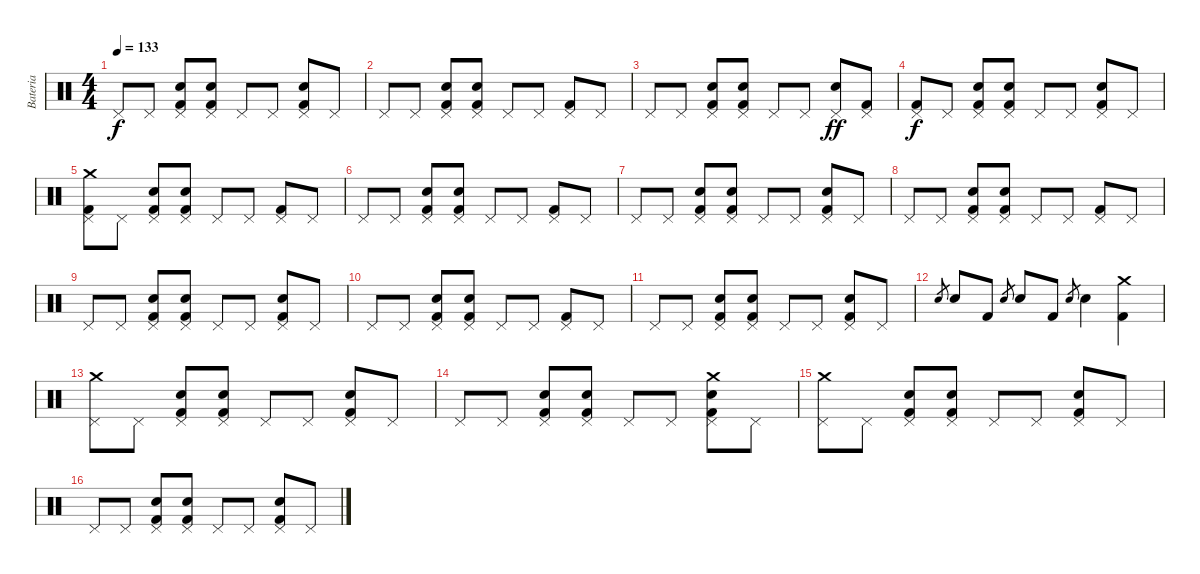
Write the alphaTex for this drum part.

\track ("Bateria" "Bateria") {instrument percussion}
\staff {score}
\articulation defaults
\ts (4 4)
\tempo 133
\clef neutral
\ks c "Pedal Hi-Hat (hit)".8{dy f} "Pedal Hi-Hat (hit)".8
("Kick (hit) 2" "Pedal Hi-Hat (hit)" "Electric Snare (hit)").8 ("Kick (hit) 2" "Pedal Hi-Hat (hit)" "Electric Snare (hit)").8 "Pedal Hi-Hat (hit)".8 "Pedal Hi-Hat (hit)".8 ("Kick (hit) 2" "Pedal Hi-Hat (hit)" "Electric Snare (hit)").8 "Pedal Hi-Hat (hit)".8 |
"Pedal Hi-Hat (hit)".8 "Pedal Hi-Hat (hit)".8 ("Kick (hit) 2" "Pedal Hi-Hat (hit)" "Electric Snare (hit)").8 ("Kick (hit) 2" "Pedal Hi-Hat (hit)" "Electric Snare (hit)").8 "Pedal Hi-Hat (hit)".8 "Pedal Hi-Hat (hit)".8 ("Kick (hit) 2" "Pedal Hi-Hat (hit)").8 "Pedal Hi-Hat (hit)".8 |
"Pedal Hi-Hat (hit)".8 "Pedal Hi-Hat (hit)".8 ("Kick (hit) 2" "Pedal Hi-Hat (hit)" "Electric Snare (hit)").8 ("Kick (hit) 2" "Pedal Hi-Hat (hit)" "Electric Snare (hit)").8 "Pedal Hi-Hat (hit)".8 "Pedal Hi-Hat (hit)".8 ("Pedal Hi-Hat (hit)" "Electric Snare (hit)").8{dy ff} ("Kick (hit) 2" "Pedal Hi-Hat (hit)").8 |
("Kick (hit) 2" "Pedal Hi-Hat (hit)").8{dy f} "Pedal Hi-Hat (hit)".8 ("Kick (hit) 2" "Pedal Hi-Hat (hit)" "Electric Snare (hit)").8 ("Kick (hit) 2" "Pedal Hi-Hat (hit)" "Electric Snare (hit)").8 "Pedal Hi-Hat (hit)".8 "Pedal Hi-Hat (hit)".8 ("Kick (hit) 2" "Pedal Hi-Hat (hit)" "Electric Snare (hit)").8 "Pedal Hi-Hat (hit)".8 |
("Crash medium (hit)" "Kick (hit) 2" "Pedal Hi-Hat (hit)").8 "Pedal Hi-Hat (hit)".8 ("Kick (hit) 2" "Pedal Hi-Hat (hit)" "Electric Snare (hit)").8 ("Kick (hit) 2" "Pedal Hi-Hat (hit)" "Electric Snare (hit)").8 "Pedal Hi-Hat (hit)".8 "Pedal Hi-Hat (hit)".8 ("Kick (hit) 2" "Pedal Hi-Hat (hit)").8 "Pedal Hi-Hat (hit)".8 |
"Pedal Hi-Hat (hit)".8 "Pedal Hi-Hat (hit)".8 ("Kick (hit) 2" "Pedal Hi-Hat (hit)" "Electric Snare (hit)").8 ("Kick (hit) 2" "Pedal Hi-Hat (hit)" "Electric Snare (hit)").8 "Pedal Hi-Hat (hit)".8 "Pedal Hi-Hat (hit)".8 ("Kick (hit) 2" "Pedal Hi-Hat (hit)").8 "Pedal Hi-Hat (hit)".8 |
"Pedal Hi-Hat (hit)".8 "Pedal Hi-Hat (hit)".8 ("Kick (hit) 2" "Pedal Hi-Hat (hit)" "Electric Snare (hit)").8 ("Kick (hit) 2" "Pedal Hi-Hat (hit)" "Electric Snare (hit)").8 "Pedal Hi-Hat (hit)".8 "Pedal Hi-Hat (hit)".8 ("Kick (hit) 2" "Pedal Hi-Hat (hit)" "Electric Snare (hit)").8 "Pedal Hi-Hat (hit)".8 |
"Pedal Hi-Hat (hit)".8 "Pedal Hi-Hat (hit)".8 ("Kick (hit) 2" "Pedal Hi-Hat (hit)" "Electric Snare (hit)").8 ("Kick (hit) 2" "Pedal Hi-Hat (hit)" "Electric Snare (hit)").8 "Pedal Hi-Hat (hit)".8 "Pedal Hi-Hat (hit)".8 ("Kick (hit) 2" "Pedal Hi-Hat (hit)").8 "Pedal Hi-Hat (hit)".8 |
"Pedal Hi-Hat (hit)".8 "Pedal Hi-Hat (hit)".8 ("Kick (hit) 2" "Pedal Hi-Hat (hit)" "Electric Snare (hit)").8 ("Kick (hit) 2" "Pedal Hi-Hat (hit)" "Electric Snare (hit)").8 "Pedal Hi-Hat (hit)".8 "Pedal Hi-Hat (hit)".8 ("Kick (hit) 2" "Pedal Hi-Hat (hit)" "Electric Snare (hit)").8 "Pedal Hi-Hat (hit)".8 |
"Pedal Hi-Hat (hit)".8 "Pedal Hi-Hat (hit)".8 ("Kick (hit) 2" "Pedal Hi-Hat (hit)" "Electric Snare (hit)").8 ("Kick (hit) 2" "Pedal Hi-Hat (hit)" "Electric Snare (hit)").8 "Pedal Hi-Hat (hit)".8 "Pedal Hi-Hat (hit)".8 ("Kick (hit) 2" "Pedal Hi-Hat (hit)").8 "Pedal Hi-Hat (hit)".8 |
"Pedal Hi-Hat (hit)".8 "Pedal Hi-Hat (hit)".8 ("Kick (hit) 2" "Pedal Hi-Hat (hit)" "Electric Snare (hit)").8 ("Kick (hit) 2" "Pedal Hi-Hat (hit)" "Electric Snare (hit)").8 "Pedal Hi-Hat (hit)".8 "Pedal Hi-Hat (hit)".8 ("Kick (hit) 2" "Pedal Hi-Hat (hit)" "Electric Snare (hit)").8 "Pedal Hi-Hat (hit)".8 |
"Electric Snare (hit)".8{gr} "Electric Snare (hit)".8 "Kick (hit) 2".8 "Electric Snare (hit)".8{gr} "Electric Snare (hit)".8 "Kick (hit) 2".8 "Electric Snare (hit)".8{gr} "Electric Snare (hit)".4 ("Crash medium (hit)" "Kick (hit) 2").4 |
("Crash medium (hit)" "Pedal Hi-Hat (hit)").8 "Pedal Hi-Hat (hit)".8 ("Kick (hit) 2" "Pedal Hi-Hat (hit)" "Electric Snare (hit)").8 ("Kick (hit) 2" "Pedal Hi-Hat (hit)" "Electric Snare (hit)").8 "Pedal Hi-Hat (hit)".8 "Pedal Hi-Hat (hit)".8 ("Kick (hit) 2" "Pedal Hi-Hat (hit)" "Electric Snare (hit)").8 "Pedal Hi-Hat (hit)".8 |
"Pedal Hi-Hat (hit)".8 "Pedal Hi-Hat (hit)".8 ("Kick (hit) 2" "Pedal Hi-Hat (hit)" "Electric Snare (hit)").8 ("Kick (hit) 2" "Pedal Hi-Hat (hit)" "Electric Snare (hit)").8 "Pedal Hi-Hat (hit)".8 "Pedal Hi-Hat (hit)".8 ("Crash medium (hit)" "Kick (hit) 2" "Pedal Hi-Hat (hit)" "Electric Snare (hit)").8 "Pedal Hi-Hat (hit)".8 |
("Crash medium (hit)" "Pedal Hi-Hat (hit)").8 "Pedal Hi-Hat (hit)".8 ("Kick (hit) 2" "Pedal Hi-Hat (hit)" "Electric Snare (hit)").8 ("Kick (hit) 2" "Pedal Hi-Hat (hit)" "Electric Snare (hit)").8 "Pedal Hi-Hat (hit)".8 "Pedal Hi-Hat (hit)".8 ("Kick (hit) 2" "Pedal Hi-Hat (hit)" "Electric Snare (hit)").8 "Pedal Hi-Hat (hit)".8 |
"Pedal Hi-Hat (hit)".8 "Pedal Hi-Hat (hit)".8 ("Kick (hit) 2" "Pedal Hi-Hat (hit)" "Electric Snare (hit)").8 ("Kick (hit) 2" "Pedal Hi-Hat (hit)" "Electric Snare (hit)").8 "Pedal Hi-Hat (hit)".8 "Pedal Hi-Hat (hit)".8 ("Kick (hit) 2" "Pedal Hi-Hat (hit)" "Electric Snare (hit)").8 "Pedal Hi-Hat (hit)".8
